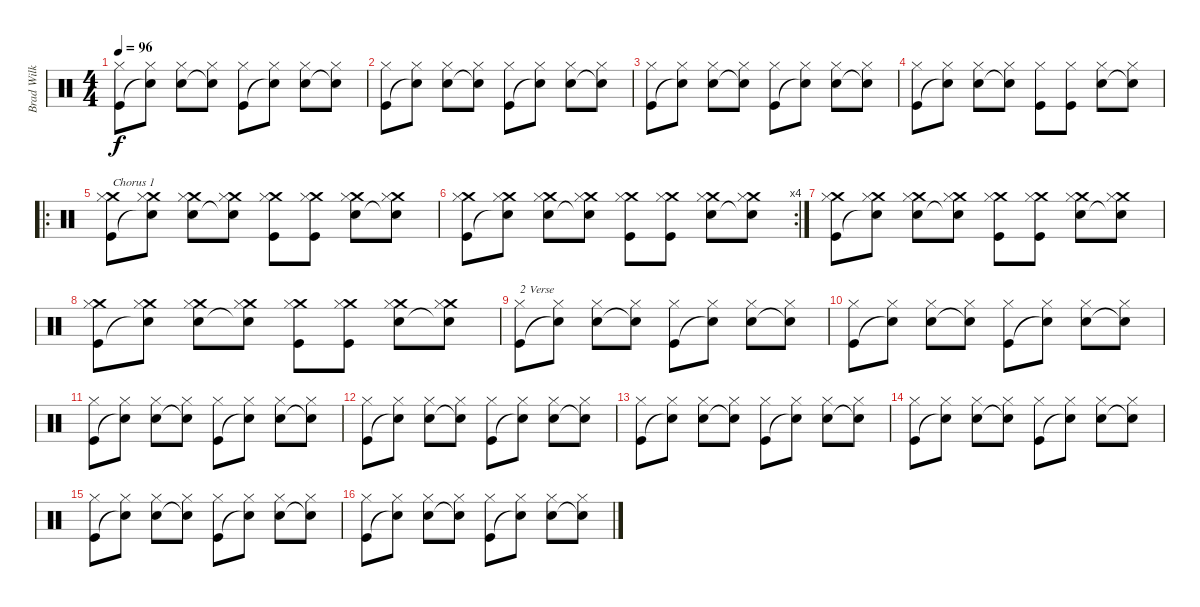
\track ("Brad Wilk" "Brad Wilk") {instrument percussion}
\staff {score}
\articulation defaults
\ts (4 4)
\tempo 96
\clef neutral
\ks c
("Hi-Hat (closed)" "Kick (hit)").8{dy f} ("Hi-Hat (closed)" "Snare (hit)"{t}).8 ("Hi-Hat (closed)" "Snare (hit) 2").8 ("Hi-Hat (closed)" "Snare (hit)"{t}).8 ("Hi-Hat (closed)" "Kick (hit)").8 ("Hi-Hat (closed)" "Snare (hit)"{t}).8 ("Hi-Hat (closed)" "Snare (hit) 2").8 ("Hi-Hat (closed)" "Snare (hit)"{t}).8 |
("Hi-Hat (closed)" "Kick (hit)").8 ("Hi-Hat (closed)" "Snare (hit)"{t}).8 ("Hi-Hat (closed)" "Snare (hit) 2").8 ("Hi-Hat (closed)" "Snare (hit)"{t}).8 ("Hi-Hat (closed)" "Kick (hit)").8 ("Hi-Hat (closed)" "Snare (hit)"{t}).8 ("Hi-Hat (closed)" "Snare (hit) 2").8 ("Hi-Hat (closed)" "Snare (hit)"{t}).8 |
("Hi-Hat (closed)" "Kick (hit)").8 ("Hi-Hat (closed)" "Snare (hit)"{t}).8 ("Hi-Hat (closed)" "Snare (hit) 2").8 ("Hi-Hat (closed)" "Snare (hit)"{t}).8 ("Hi-Hat (closed)" "Kick (hit)").8 ("Hi-Hat (closed)" "Snare (hit)"{t}).8 ("Hi-Hat (closed)" "Snare (hit) 2").8 ("Hi-Hat (closed)" "Snare (hit)"{t}).8 |
("Hi-Hat (closed)" "Kick (hit)").8 ("Hi-Hat (closed)" "Snare (hit)"{t}).8 ("Hi-Hat (closed)" "Snare (hit) 2").8 ("Hi-Hat (closed)" "Snare (hit)"{t}).8 ("Hi-Hat (closed)" "Kick (hit)").8 ("Hi-Hat (closed)" "Kick (hit)").8 ("Hi-Hat (closed)" "Snare (hit) 2").8 ("Hi-Hat (closed)" "Snare (hit)"{t}).8 |
\ro
("Crash medium (hit)" "Hi-Hat (closed)" "Kick (hit)").8{txt "Chorus 1"} ("Crash medium (hit)" "Hi-Hat (closed)" "Snare (hit)"{t}).8 ("Crash medium (hit)" "Hi-Hat (closed)" "Snare (hit) 2").8 ("Crash medium (hit)" "Hi-Hat (closed)" "Snare (hit)"{t}).8 ("Crash medium (hit)" "Hi-Hat (closed)" "Kick (hit)").8 ("Crash medium (hit)" "Hi-Hat (closed)" "Kick (hit)").8 ("Crash medium (hit)" "Hi-Hat (closed)" "Snare (hit) 2").8 ("Crash medium (hit)" "Hi-Hat (closed)" "Snare (hit)"{t}).8 |
\rc 4
("Crash medium (hit)" "Hi-Hat (closed)" "Kick (hit)").8 ("Crash medium (hit)" "Hi-Hat (closed)" "Snare (hit)"{t}).8 ("Crash medium (hit)" "Hi-Hat (closed)" "Snare (hit) 2").8 ("Crash medium (hit)" "Hi-Hat (closed)" "Snare (hit)"{t}).8 ("Crash medium (hit)" "Hi-Hat (closed)" "Kick (hit)").8 ("Crash medium (hit)" "Hi-Hat (closed)" "Kick (hit)").8 ("Crash medium (hit)" "Hi-Hat (closed)" "Snare (hit) 2").8 ("Crash medium (hit)" "Hi-Hat (closed)" "Snare (hit)"{t}).8 |
("Crash medium (hit)" "Hi-Hat (closed)" "Kick (hit)").8 ("Crash medium (hit)" "Hi-Hat (closed)" "Snare (hit)"{t}).8 ("Crash medium (hit)" "Hi-Hat (closed)" "Snare (hit) 2").8 ("Crash medium (hit)" "Hi-Hat (closed)" "Snare (hit)"{t}).8 ("Crash medium (hit)" "Hi-Hat (closed)" "Kick (hit)").8 ("Crash medium (hit)" "Hi-Hat (closed)" "Kick (hit)").8 ("Crash medium (hit)" "Hi-Hat (closed)" "Snare (hit) 2").8 ("Crash medium (hit)" "Hi-Hat (closed)" "Snare (hit)"{t}).8 |
("Crash medium (hit)" "Hi-Hat (closed)" "Kick (hit)").8 ("Crash medium (hit)" "Hi-Hat (closed)" "Snare (hit)"{t}).8 ("Crash medium (hit)" "Hi-Hat (closed)" "Snare (hit) 2").8 ("Crash medium (hit)" "Hi-Hat (closed)" "Snare (hit)"{t}).8 ("Crash medium (hit)" "Hi-Hat (closed)" "Kick (hit)").8 ("Crash medium (hit)" "Hi-Hat (closed)" "Kick (hit)").8 ("Crash medium (hit)" "Hi-Hat (closed)" "Snare (hit) 2").8 ("Crash medium (hit)" "Hi-Hat (closed)" "Snare (hit)"{t}).8 |
("Hi-Hat (closed)" "Kick (hit)").8{txt "2 Verse"} ("Hi-Hat (closed)" "Snare (hit)"{t}).8 ("Hi-Hat (closed)" "Snare (hit) 2").8 ("Hi-Hat (closed)" "Snare (hit)"{t}).8 ("Hi-Hat (closed)" "Kick (hit)").8 ("Hi-Hat (closed)" "Snare (hit)"{t}).8 ("Hi-Hat (closed)" "Snare (hit) 2").8 ("Hi-Hat (closed)" "Snare (hit)"{t}).8 |
("Hi-Hat (closed)" "Kick (hit)").8 ("Hi-Hat (closed)" "Snare (hit)"{t}).8 ("Hi-Hat (closed)" "Snare (hit) 2").8 ("Hi-Hat (closed)" "Snare (hit)"{t}).8 ("Hi-Hat (closed)" "Kick (hit)").8 ("Hi-Hat (closed)" "Snare (hit)"{t}).8 ("Hi-Hat (closed)" "Snare (hit) 2").8 ("Hi-Hat (closed)" "Snare (hit)"{t}).8 |
("Hi-Hat (closed)" "Kick (hit)").8 ("Hi-Hat (closed)" "Snare (hit)"{t}).8 ("Hi-Hat (closed)" "Snare (hit) 2").8 ("Hi-Hat (closed)" "Snare (hit)"{t}).8 ("Hi-Hat (closed)" "Kick (hit)").8 ("Hi-Hat (closed)" "Snare (hit)"{t}).8 ("Hi-Hat (closed)" "Snare (hit) 2").8 ("Hi-Hat (closed)" "Snare (hit)"{t}).8 |
("Hi-Hat (closed)" "Kick (hit)").8 ("Hi-Hat (closed)" "Snare (hit)"{t}).8 ("Hi-Hat (closed)" "Snare (hit) 2").8 ("Hi-Hat (closed)" "Snare (hit)"{t}).8 ("Hi-Hat (closed)" "Kick (hit)").8 ("Hi-Hat (closed)" "Snare (hit)"{t}).8 ("Hi-Hat (closed)" "Snare (hit) 2").8 ("Hi-Hat (closed)" "Snare (hit)"{t}).8 |
("Hi-Hat (closed)" "Kick (hit)").8 ("Hi-Hat (closed)" "Snare (hit)"{t}).8 ("Hi-Hat (closed)" "Snare (hit) 2").8 ("Hi-Hat (closed)" "Snare (hit)"{t}).8 ("Hi-Hat (closed)" "Kick (hit)").8 ("Hi-Hat (closed)" "Snare (hit)"{t}).8 ("Hi-Hat (closed)" "Snare (hit) 2").8 ("Hi-Hat (closed)" "Snare (hit)"{t}).8 |
("Hi-Hat (closed)" "Kick (hit)").8 ("Hi-Hat (closed)" "Snare (hit)"{t}).8 ("Hi-Hat (closed)" "Snare (hit) 2").8 ("Hi-Hat (closed)" "Snare (hit)"{t}).8 ("Hi-Hat (closed)" "Kick (hit)").8 ("Hi-Hat (closed)" "Snare (hit)"{t}).8 ("Hi-Hat (closed)" "Snare (hit) 2").8 ("Hi-Hat (closed)" "Snare (hit)"{t}).8 |
("Hi-Hat (closed)" "Kick (hit)").8 ("Hi-Hat (closed)" "Snare (hit)"{t}).8 ("Hi-Hat (closed)" "Snare (hit) 2").8 ("Hi-Hat (closed)" "Snare (hit)"{t}).8 ("Hi-Hat (closed)" "Kick (hit)").8 ("Hi-Hat (closed)" "Snare (hit)"{t}).8 ("Hi-Hat (closed)" "Snare (hit) 2").8 ("Hi-Hat (closed)" "Snare (hit)"{t}).8 |
("Hi-Hat (closed)" "Kick (hit)").8 ("Hi-Hat (closed)" "Snare (hit)"{t}).8 ("Hi-Hat (closed)" "Snare (hit) 2").8 ("Hi-Hat (closed)" "Snare (hit)"{t}).8 ("Hi-Hat (closed)" "Kick (hit)").8 ("Hi-Hat (closed)" "Snare (hit)"{t}).8 ("Hi-Hat (closed)" "Snare (hit) 2").8 ("Hi-Hat (closed)" "Snare (hit)"{t}).8
